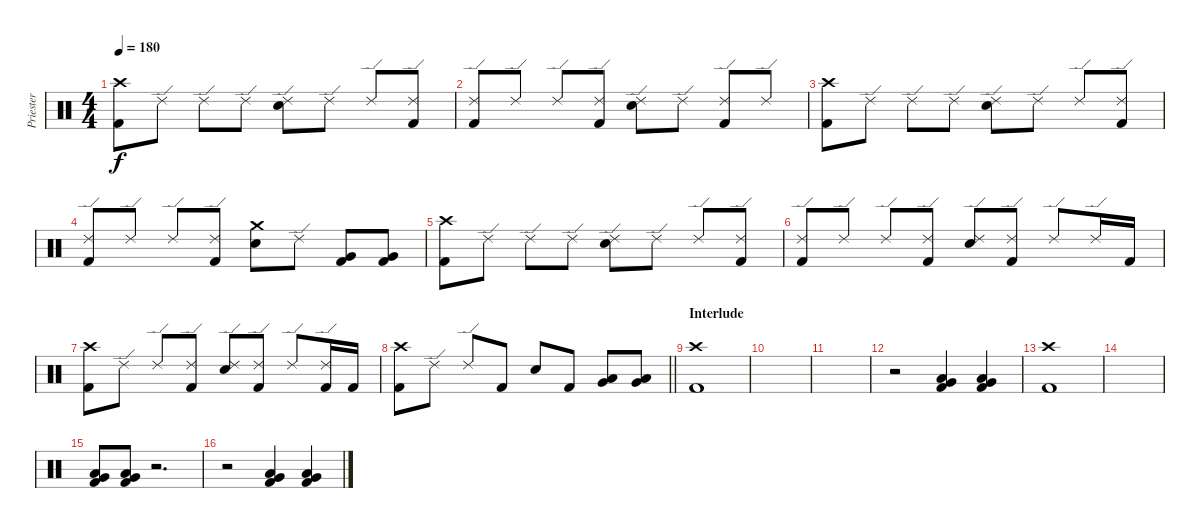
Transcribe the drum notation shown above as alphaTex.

\track ("Priester" "Priester") {instrument percussion}
\staff {score}
\articulation defaults
\ts (4 4)
\tempo 180
\clef neutral
\ks c
("Crash high (hit)" "Kick (hit) 2").8{dy f} "Ride (edge) 2".8 "Ride (edge) 2".8 "Ride (edge) 2".8 ("Ride (edge) 2" "Electric Snare (hit)").8 "Ride (edge) 2".8 "Ride (edge) 2".8 ("Ride (edge) 2" "Kick (hit) 2").8 |
("Ride (edge) 2" "Kick (hit) 2").8 "Ride (edge) 2".8 "Ride (edge) 2".8 ("Ride (edge) 2" "Kick (hit) 2").8 ("Ride (edge) 2" "Electric Snare (hit)").8 "Ride (edge) 2".8 ("Ride (edge) 2" "Kick (hit) 2").8 "Ride (edge) 2".8 |
("Crash high (hit)" "Kick (hit) 2").8 "Ride (edge) 2".8 "Ride (edge) 2".8 "Ride (edge) 2".8 ("Ride (edge) 2" "Electric Snare (hit)").8 "Ride (edge) 2".8 "Ride (edge) 2".8 ("Ride (edge) 2" "Kick (hit) 2").8 |
("Ride (edge) 2" "Kick (hit) 2").8 "Ride (edge) 2".8 "Ride (edge) 2".8 ("Ride (edge) 2" "Kick (hit) 2").8 ("Crash medium (hit)" "Electric Snare (hit)").8 "Ride (edge) 2".8 ("Very Low Tom (hit)" "Kick (hit) 2").8 ("Very Low Tom (hit)" "Kick (hit) 2").8 |
("Crash high (hit)" "Kick (hit) 2").8 "Ride (edge) 2".8 "Ride (edge) 2".8 "Ride (edge) 2".8 ("Ride (edge) 2" "Electric Snare (hit)").8 "Ride (edge) 2".8 "Ride (edge) 2".8 ("Ride (edge) 2" "Kick (hit) 2").8 |
("Ride (edge) 2" "Kick (hit) 2").8 "Ride (edge) 2".8 "Ride (edge) 2".8 ("Ride (edge) 2" "Kick (hit) 2").8 ("Ride (edge) 2" "Electric Snare (hit)").8 ("Ride (edge) 2" "Kick (hit) 2").8 "Ride (edge) 2".8 "Ride (edge) 2".16 "Kick (hit) 2".16 |
("Crash high (hit)" "Kick (hit) 2").8 "Ride (edge) 2".8 "Ride (edge) 2".8 ("Ride (edge) 2" "Kick (hit) 2").8 ("Ride (edge) 2" "Electric Snare (hit)").8 ("Ride (edge) 2" "Kick (hit) 2").8 "Ride (edge) 2".8 ("Ride (edge) 2" "Kick (hit) 2").16 "Kick (hit) 2".16 |
\barLineRight lightlight
("Crash high (hit)" "Kick (hit) 2").8 "Ride (edge) 2".8 "Ride (edge) 2".8 "Kick (hit) 2".8 "Electric Snare (hit)".8 "Kick (hit) 2".8 ("Low Floor Tom (hit)" "Very Low Tom (hit)").8 ("Low Floor Tom (hit)" "Very Low Tom (hit)").8 |
\section ("" "Interlude")
("Crash high (hit)" "Kick (hit) 2").1 |
|
|
r.2 ("Very Low Tom (hit)" "Low Floor Tom (hit)" "Kick (hit) 2").4 ("Very Low Tom (hit)" "Low Floor Tom (hit)" "Kick (hit) 2").4 |
("Crash high (hit)" "Kick (hit) 2").1 |
|
("Very Low Tom (hit)" "Low Floor Tom (hit)" "Kick (hit) 2").8 ("Very Low Tom (hit)" "Low Floor Tom (hit)" "Kick (hit) 2").8 r.2{d} |
r.2 ("Very Low Tom (hit)" "Low Floor Tom (hit)" "Kick (hit) 2").4 ("Very Low Tom (hit)" "Low Floor Tom (hit)" "Kick (hit) 2").4
